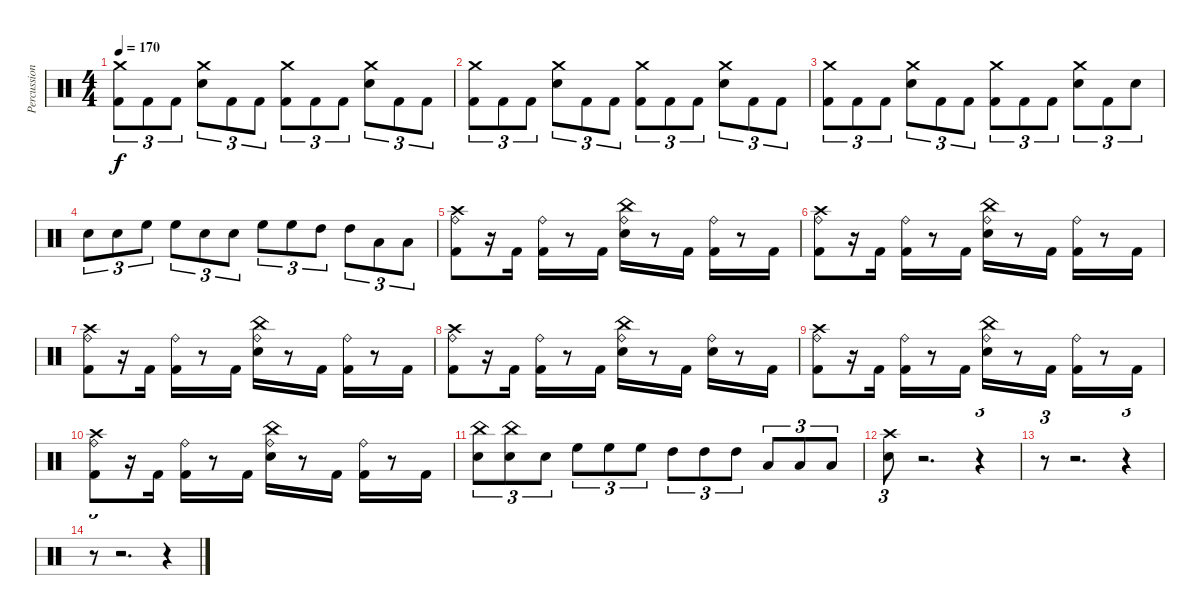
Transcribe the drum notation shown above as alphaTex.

\track ("Percussion" "Percussion") {instrument percussion}
\staff {score}
\articulation defaults
\ts (4 4)
\tempo 170
\clef neutral
\ks c
("Crash medium (hit)" "Kick (hit) 2").8{tu (3 2) dy f} "Kick (hit) 2".8{tu (3 2)} "Kick (hit) 2".8{tu (3 2)} ("Crash medium (hit)" "Electric Snare (hit)").8{tu (3 2)} "Kick (hit) 2".8{tu (3 2)} "Kick (hit) 2".8{tu (3 2)} ("Crash medium (hit)" "Kick (hit) 2").8{tu (3 2)} "Kick (hit) 2".8{tu (3 2)} "Kick (hit) 2".8{tu (3 2)} ("Crash medium (hit)" "Electric Snare (hit)").8{tu (3 2)} "Kick (hit) 2".8{tu (3 2)} "Kick (hit) 2".8{tu (3 2)} |
("Crash medium (hit)" "Kick (hit) 2").8{tu (3 2)} "Kick (hit) 2".8{tu (3 2)} "Kick (hit) 2".8{tu (3 2)} ("Crash medium (hit)" "Electric Snare (hit)").8{tu (3 2)} "Kick (hit) 2".8{tu (3 2)} "Kick (hit) 2".8{tu (3 2)} ("Crash medium (hit)" "Kick (hit) 2").8{tu (3 2)} "Kick (hit) 2".8{tu (3 2)} "Kick (hit) 2".8{tu (3 2)} ("Crash medium (hit)" "Electric Snare (hit)").8{tu (3 2)} "Kick (hit) 2".8{tu (3 2)} "Kick (hit) 2".8{tu (3 2)} |
("Crash medium (hit)" "Kick (hit) 2").8{tu (3 2)} "Kick (hit) 2".8{tu (3 2)} "Kick (hit) 2".8{tu (3 2)} ("Crash medium (hit)" "Electric Snare (hit)").8{tu (3 2)} "Kick (hit) 2".8{tu (3 2)} "Kick (hit) 2".8{tu (3 2)} ("Crash medium (hit)" "Kick (hit) 2").8{tu (3 2)} "Kick (hit) 2".8{tu (3 2)} "Kick (hit) 2".8{tu (3 2)} ("Crash medium (hit)" "Electric Snare (hit)").8{tu (3 2)} "Kick (hit) 2".8{tu (3 2)} "Electric Snare (hit)".8{tu (3 2)} |
"Electric Snare (hit)".8{tu (3 2)} "Electric Snare (hit)".8{tu (3 2)} "High Floor Tom (hit)".8{tu (3 2)} "High Floor Tom (hit)".8{tu (3 2)} "Electric Snare (hit)".8{tu (3 2)} "Electric Snare (hit)".8{tu (3 2)} "High Floor Tom (hit)".8{tu (3 2)} "High Floor Tom (hit)".8{tu (3 2)} "High Tom (hit)".8{tu (3 2)} "High Tom (hit)".8{tu (3 2)} "Low Floor Tom (hit)".8{tu (3 2)} "Low Floor Tom (hit)".8{tu (3 2)} |
("Crash high (hit)" "Ride (bell)" "Kick (hit) 2").8 r.16 "Kick (hit) 2".16 ("Ride (bell)" "Kick (hit) 2").16 r.8 "Kick (hit) 2".16 ("China (hit)" "Ride (bell)" "Electric Snare (hit)").16 r.8 "Kick (hit) 2".16 ("Ride (bell)" "Kick (hit) 2").16 r.8 "Kick (hit) 2".16 |
("Crash high (hit)" "Ride (bell)" "Kick (hit) 2").8 r.16 "Kick (hit) 2".16 ("Ride (bell)" "Kick (hit) 2").16 r.8 "Kick (hit) 2".16 ("China (hit)" "Ride (bell)" "Electric Snare (hit)").16 r.8 "Kick (hit) 2".16 ("Ride (bell)" "Kick (hit) 2").16 r.8 "Kick (hit) 2".16 |
("Crash high (hit)" "Ride (bell)" "Kick (hit) 2").8 r.16 "Kick (hit) 2".16 ("Ride (bell)" "Kick (hit) 2").16 r.8 "Kick (hit) 2".16 ("China (hit)" "Ride (bell)" "Electric Snare (hit)").16 r.8 "Kick (hit) 2".16 ("Ride (bell)" "Kick (hit) 2").16 r.8 "Kick (hit) 2".16 |
("Crash high (hit)" "Ride (bell)" "Kick (hit) 2").8 r.16 "Kick (hit) 2".16 ("Ride (bell)" "Kick (hit) 2").16 r.8 "Kick (hit) 2".16 ("China (hit)" "Ride (bell)" "Electric Snare (hit)").16 r.8 "Kick (hit) 2".16 ("Ride (bell)" "Electric Snare (hit)").16 r.8 "Kick (hit) 2".16 |
("Crash high (hit)" "Ride (bell)" "Kick (hit) 2").8 r.16 "Kick (hit) 2".16 ("Ride (bell)" "Kick (hit) 2").16 r.8 "Kick (hit) 2".16 ("China (hit)" "Ride (bell)" "Electric Snare (hit)").16 r.8 "Kick (hit) 2".16 ("Ride (bell)" "Kick (hit) 2").16 r.8 "Kick (hit) 2".16 |
("Crash high (hit)" "Ride (bell)" "Kick (hit) 2").8 r.16 "Kick (hit) 2".16 ("Ride (bell)" "Kick (hit) 2").16 r.8 "Kick (hit) 2".16 ("China (hit)" "Ride (bell)" "Electric Snare (hit)").16 r.8 "Kick (hit) 2".16 ("Ride (bell)" "Kick (hit) 2").16 r.8 "Kick (hit) 2".16 |
("China (hit)" "Electric Snare (hit)").8{tu (3 2)} ("China (hit)" "Electric Snare (hit)").8{tu (3 2)} "Electric Snare (hit)".8{tu (3 2)} "High Floor Tom (hit)".8{tu (3 2)} "High Floor Tom (hit)".8{tu (3 2)} "High Floor Tom (hit)".8{tu (3 2)} "High Tom (hit)".8{tu (3 2)} "High Tom (hit)".8{tu (3 2)} "High Tom (hit)".8{tu (3 2)} "Low Floor Tom (hit)".8{tu (3 2)} "Low Floor Tom (hit)".8{tu (3 2)} "Low Floor Tom (hit)".8{tu (3 2)} |
("Crash high (hit)" "Electric Snare (hit)").8{tu (3 2)} r.2{d} r.4{tu (3 2)} |
r.8{tu (3 2)} r.2{d} r.4{tu (3 2)} |
r.8{tu (3 2)} r.2{d} r.4{tu (3 2)}
